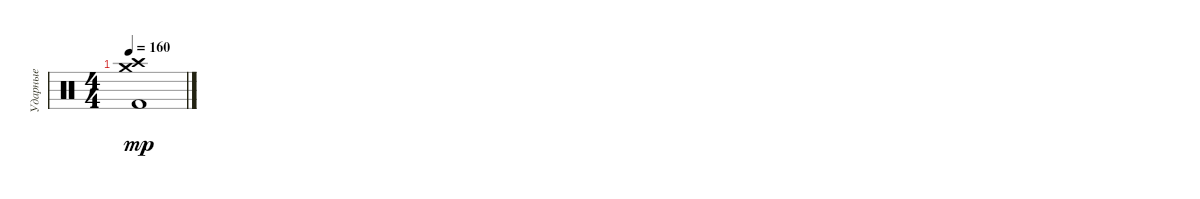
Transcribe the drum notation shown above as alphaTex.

\track ("Ударные" "Ударные") {instrument percussion}
\staff {score}
\articulation defaults
\ts (4 4)
\tempo 160
\clef neutral
\ks c
("Kick (hit) 2" "Crash medium (hit)" "Crash high (hit)").1{dy mp}
